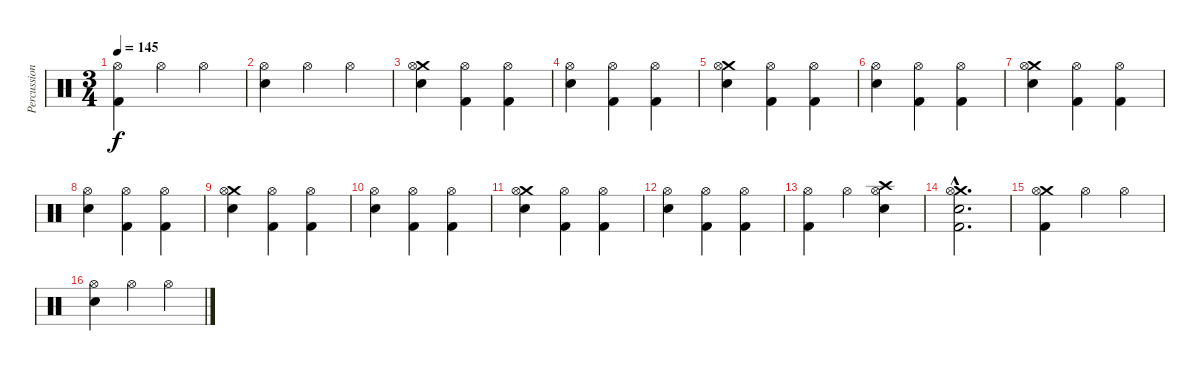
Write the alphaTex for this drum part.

\track ("Percussion" "Percussion") {instrument percussion}
\staff {score}
\articulation defaults
\ts (3 4)
\tempo 145
\clef neutral
\ks c
("Hi-Hat (open)" "Kick (hit) 2").4{dy f} "Hi-Hat (open)".4 "Hi-Hat (open)".4 |
("Hi-Hat (open)" "Electric Snare (hit)").4 "Hi-Hat (open)".4 "Hi-Hat (open)".4 |
("Crash medium (hit)" "Hi-Hat (open)" "Electric Snare (hit)").4 ("Hi-Hat (open)" "Kick (hit) 2").4 ("Hi-Hat (open)" "Kick (hit) 2").4 |
("Hi-Hat (open)" "Electric Snare (hit)").4 ("Hi-Hat (open)" "Kick (hit) 2").4 ("Hi-Hat (open)" "Kick (hit) 2").4 |
("Crash medium (hit)" "Hi-Hat (open)" "Electric Snare (hit)").4 ("Hi-Hat (open)" "Kick (hit) 2").4 ("Hi-Hat (open)" "Kick (hit) 2").4 |
("Hi-Hat (open)" "Electric Snare (hit)").4 ("Hi-Hat (open)" "Kick (hit) 2").4 ("Hi-Hat (open)" "Kick (hit) 2").4 |
("Crash medium (hit)" "Hi-Hat (open)" "Electric Snare (hit)").4 ("Hi-Hat (open)" "Kick (hit) 2").4 ("Hi-Hat (open)" "Kick (hit) 2").4 |
("Hi-Hat (open)" "Electric Snare (hit)").4 ("Hi-Hat (open)" "Kick (hit) 2").4 ("Hi-Hat (open)" "Kick (hit) 2").4 |
("Crash medium (hit)" "Hi-Hat (open)" "Electric Snare (hit)").4 ("Hi-Hat (open)" "Kick (hit) 2").4 ("Hi-Hat (open)" "Kick (hit) 2").4 |
("Hi-Hat (open)" "Electric Snare (hit)").4 ("Hi-Hat (open)" "Kick (hit) 2").4 ("Hi-Hat (open)" "Kick (hit) 2").4 |
("Crash medium (hit)" "Hi-Hat (open)" "Electric Snare (hit)").4 ("Hi-Hat (open)" "Kick (hit) 2").4 ("Hi-Hat (open)" "Kick (hit) 2").4 |
("Hi-Hat (open)" "Electric Snare (hit)").4 ("Hi-Hat (open)" "Kick (hit) 2").4 ("Hi-Hat (open)" "Kick (hit) 2").4 |
("Hi-Hat (open)" "Kick (hit) 2").4 "Hi-Hat (open)".4 ("Crash high (hit)" "Hi-Hat (open)" "Electric Snare (hit)").4 |
("Crash medium (hit)"{hac} "Hi-Hat (open)"{hac} "Electric Snare (hit)"{hac} "Kick (hit) 2"{hac}).2{d} |
("Crash medium (hit)" "Hi-Hat (open)" "Kick (hit) 2").4 "Hi-Hat (open)".4 "Hi-Hat (open)".4 |
("Hi-Hat (open)" "Electric Snare (hit)").4 "Hi-Hat (open)".4 "Hi-Hat (open)".4
